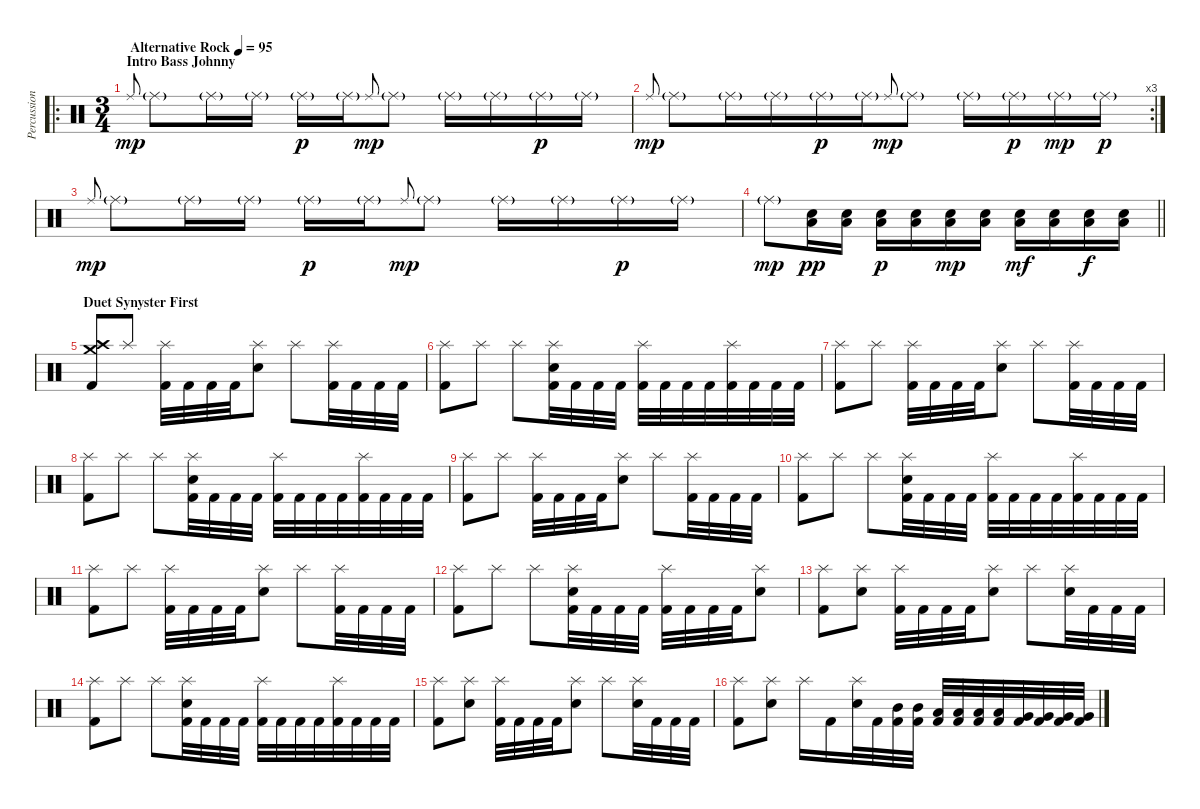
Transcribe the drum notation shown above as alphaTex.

\track ("Percussion Mike" "Percussion") {instrument percussion}
\staff {score}
\articulation defaults
\ro
\ts (3 4)
\section ("" "Intro Bass Johnny")
\tempo (95 "Alternative Rock")
\clef neutral
\ks c "Ride (middle)".8{gr onbeat dy mp} "Ride (middle)"{g}.8 "Ride (middle)"{g}.16 "Ride (middle)"{g}.16 "Ride (middle)"{g}.16{dy p} "Ride (middle)"{g}.16 "Ride (middle)".8{gr onbeat dy mp} "Ride (middle)"{g}.8 "Ride (middle)"{g}.16 "Ride (middle)"{g}.16{beam merge} "Ride (middle)"{g}.16{dy p} "Ride (middle)"{g}.16
|
\rc 3 "Ride (middle)".8{gr onbeat dy mp} "Ride (middle)"{g}.8 "Ride (middle)"{g}.16 "Ride (middle)"{g}.16{beam merge} "Ride (middle)"{g}.16{dy p} "Ride (middle)"{g}.16 "Ride (middle)".8{gr onbeat dy mp} "Ride (middle)"{g}.8 "Ride (middle)"{g}.16 "Ride (middle)"{g}.16{dy p} "Ride (middle)"{g}.16{dy mp} "Ride (middle)"{g}.16{dy p}
|
"Ride (middle)".8{gr onbeat dy mp} "Ride (middle)"{g}.8 "Ride (middle)"{g}.16 "Ride (middle)"{g}.16 "Ride (middle)"{g}.16{dy p} "Ride (middle)"{g}.16 "Ride (middle)".8{gr onbeat dy mp} "Ride (middle)"{g}.8 "Ride (middle)"{g}.16 "Ride (middle)"{g}.16{beam merge} "Ride (middle)"{g}.16{dy p} "Ride (middle)"{g}.16 |
\barLineRight lightlight "Ride (middle)"{g}.8{dy mp}
("Snare (hit) 2" "Low Floor Tom (hit)").16{dy pp} ("Snare (hit) 2" "Low Floor Tom (hit)").16 ("Snare (hit) 2" "Low Floor Tom (hit)").16{dy p} ("Snare (hit) 2" "Low Floor Tom (hit)").16 ("Snare (hit) 2" "Low Floor Tom (hit)").16{dy mp} ("Snare (hit) 2" "Low Floor Tom (hit)").16 ("Snare (hit) 2" "Low Floor Tom (hit)").16{dy mf} ("Snare (hit) 2" "Low Floor Tom (hit)").16 ("Snare (hit) 2" "Low Floor Tom (hit)").16{dy f} ("Snare (hit) 2" "Low Floor Tom (hit)").16 |
\section ("" "Duet Synyster First")
("Crash medium (hit)" "Crash high (hit)" "Kick (hit) 2").8{beam Up} "Splash (hit)".8{beam Up} ("Splash (hit)" "Kick (hit) 2").32 "Kick (hit) 2".32 "Kick (hit) 2".32 "Kick (hit) 2".32 ("Splash (hit)" "Snare (hit) 2").8 "Splash (hit)".8 ("Splash (hit)" "Kick (hit) 2").32 "Kick (hit) 2".32 "Kick (hit) 2".32 "Kick (hit) 2".32 |
("Splash (hit)" "Kick (hit) 2").8 "Splash (hit)".8 "Splash (hit)".8 ("Splash (hit)" "Snare (hit) 2" "Kick (hit) 2").32 "Kick (hit) 2".32 "Kick (hit) 2".32 "Kick (hit) 2".32 ("Splash (hit)" "Kick (hit) 2").32 "Kick (hit) 2".32 "Kick (hit) 2".32 "Kick (hit) 2".32 ("Splash (hit)" "Kick (hit) 2").32 "Kick (hit) 2".32 "Kick (hit) 2".32 "Kick (hit) 2".32 |
("Splash (hit)" "Kick (hit) 2").8 "Splash (hit)".8 ("Splash (hit)" "Kick (hit) 2").32 "Kick (hit) 2".32 "Kick (hit) 2".32 "Kick (hit) 2".32 ("Splash (hit)" "Snare (hit) 2").8 "Splash (hit)".8 ("Splash (hit)" "Kick (hit) 2").32 "Kick (hit) 2".32 "Kick (hit) 2".32 "Kick (hit) 2".32 |
("Splash (hit)" "Kick (hit) 2").8 "Splash (hit)".8 "Splash (hit)".8 ("Splash (hit)" "Snare (hit) 2" "Kick (hit) 2").32 "Kick (hit) 2".32 "Kick (hit) 2".32 "Kick (hit) 2".32 ("Splash (hit)" "Kick (hit) 2").32 "Kick (hit) 2".32 "Kick (hit) 2".32 "Kick (hit) 2".32 ("Splash (hit)" "Kick (hit) 2").32 "Kick (hit) 2".32 "Kick (hit) 2".32 "Kick (hit) 2".32 |
("Splash (hit)" "Kick (hit) 2").8 "Splash (hit)".8 ("Splash (hit)" "Kick (hit) 2").32 "Kick (hit) 2".32 "Kick (hit) 2".32 "Kick (hit) 2".32 ("Splash (hit)" "Snare (hit) 2").8 "Splash (hit)".8 ("Splash (hit)" "Kick (hit) 2").32 "Kick (hit) 2".32 "Kick (hit) 2".32 "Kick (hit) 2".32 |
("Splash (hit)" "Kick (hit) 2").8 "Splash (hit)".8 "Splash (hit)".8 ("Splash (hit)" "Snare (hit) 2" "Kick (hit) 2").32 "Kick (hit) 2".32 "Kick (hit) 2".32 "Kick (hit) 2".32 ("Splash (hit)" "Kick (hit) 2").32 "Kick (hit) 2".32 "Kick (hit) 2".32 "Kick (hit) 2".32 ("Splash (hit)" "Kick (hit) 2").32 "Kick (hit) 2".32 "Kick (hit) 2".32 "Kick (hit) 2".32 |
("Splash (hit)" "Kick (hit) 2").8 "Splash (hit)".8 ("Splash (hit)" "Kick (hit) 2").32 "Kick (hit) 2".32 "Kick (hit) 2".32 "Kick (hit) 2".32 ("Splash (hit)" "Snare (hit) 2").8 "Splash (hit)".8 ("Splash (hit)" "Kick (hit) 2").32 "Kick (hit) 2".32 "Kick (hit) 2".32 "Kick (hit) 2".32 |
("Splash (hit)" "Kick (hit) 2").8 "Splash (hit)".8 "Splash (hit)".8 ("Splash (hit)" "Snare (hit) 2" "Kick (hit) 2").32 "Kick (hit) 2".32 "Kick (hit) 2".32 "Kick (hit) 2".32 ("Splash (hit)" "Kick (hit) 2").32 "Kick (hit) 2".32 "Kick (hit) 2".32 "Kick (hit) 2".32 ("Splash (hit)" "Snare (hit) 2").8 |
("Splash (hit)" "Kick (hit) 2").8 ("Splash (hit)" "Snare (hit) 2").8 ("Splash (hit)" "Kick (hit) 2").32 "Kick (hit) 2".32 "Kick (hit) 2".32 "Kick (hit) 2".32 ("Splash (hit)" "Snare (hit) 2").8 "Splash (hit)".8 ("Splash (hit)" "Snare (hit) 2").32 "Kick (hit) 2".32 "Kick (hit) 2".32 "Kick (hit) 2".32 |
("Splash (hit)" "Kick (hit) 2").8 "Splash (hit)".8 "Splash (hit)".8 ("Splash (hit)" "Snare (hit) 2" "Kick (hit) 2").32 "Kick (hit) 2".32 "Kick (hit) 2".32 "Kick (hit) 2".32 ("Splash (hit)" "Kick (hit) 2").32 "Kick (hit) 2".32 "Kick (hit) 2".32 "Kick (hit) 2".32 ("Splash (hit)" "Kick (hit) 2").32 "Kick (hit) 2".32 "Kick (hit) 2".32 "Kick (hit) 2".32 |
("Splash (hit)" "Kick (hit) 2").8 ("Splash (hit)" "Snare (hit) 2").8 ("Splash (hit)" "Kick (hit) 2").32 "Kick (hit) 2".32 "Kick (hit) 2".32 "Kick (hit) 2".32 ("Splash (hit)" "Snare (hit) 2").8 "Splash (hit)".8 ("Splash (hit)" "Snare (hit) 2").32 "Kick (hit) 2".32 "Kick (hit) 2".32 "Kick (hit) 2".32 |
("Splash (hit)" "Kick (hit) 2").8 ("Splash (hit)" "Snare (hit) 2").8 "Splash (hit)".16 "Kick (hit) 2".16 ("Splash (hit)" "Snare (hit) 2").32 "Kick (hit) 2".32 ("Mid Tom (hit)" "Kick (hit) 2").32 ("Mid Tom (hit)" "Kick (hit) 2").32 ("Low Tom (hit)" "Kick (hit) 2").32 ("Low Tom (hit)" "Kick (hit) 2").32 ("Low Tom (hit)" "Kick (hit) 2").32 ("Low Tom (hit)" "Kick (hit) 2").32 ("Very Low Tom (hit)" "Kick (hit) 2").32 ("Very Low Tom (hit)" "Kick (hit) 2").32 ("Very Low Tom (hit)" "Kick (hit) 2").32 ("Very Low Tom (hit)" "Kick (hit) 2").32
